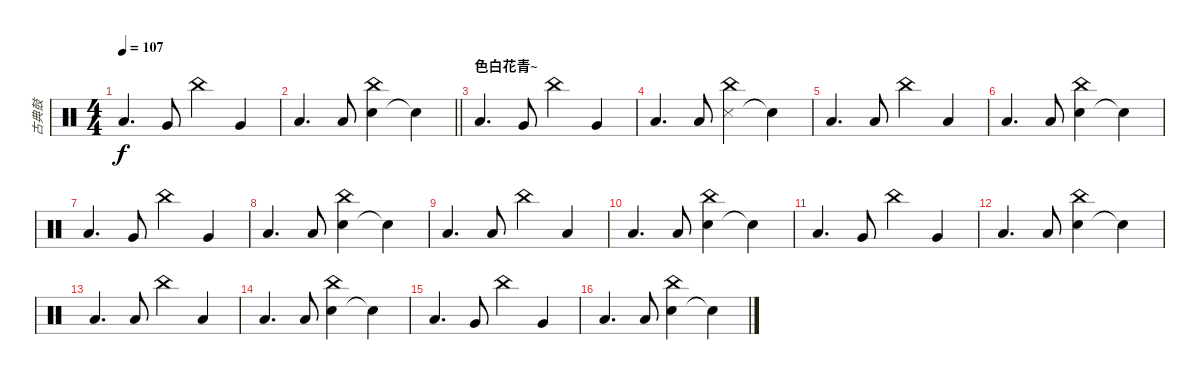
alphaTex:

\track ("古典鼓" "古典鼓") {instrument percussion}
\staff {score}
\articulation defaults
\ts (4 4)
\tempo 107
\clef neutral
\ks c "Low Floor Tom (hit)".4{d dy f} "Very Low Tom (hit)".8 "China (hit)".4 "Very Low Tom (hit)".4
|
\barLineRight lightlight "Low Floor Tom (hit)".4{d} "Low Floor Tom (hit)".8
("Hand Clap (hit)" "China (hit)").4 "Snare (hit)"{t}.4 |
\section ("" "色白花青~")
"Low Floor Tom (hit)".4{d} "Very Low Tom (hit)".8 "China (hit)".4 "Very Low Tom (hit)".4 |
"Low Floor Tom (hit)".4{d} "Low Floor Tom (hit)".8 ("Snare (side stick) 3" "China (hit)").4 "Snare (hit)"{t}.4 |
"Low Floor Tom (hit)".4{d} "Low Floor Tom (hit)".8 "China (hit)".4 "Low Floor Tom (hit)".4 |
"Low Floor Tom (hit)".4{d} "Low Floor Tom (hit)".8 ("Hand Clap (hit)" "China (hit)").4 "Snare (hit)"{t}.4 |
"Low Floor Tom (hit)".4{d} "Very Low Tom (hit)".8 "China (hit)".4 "Very Low Tom (hit)".4 |
"Low Floor Tom (hit)".4{d} "Low Floor Tom (hit)".8 ("Hand Clap (hit)" "China (hit)").4 "Snare (hit)"{t}.4 |
"Low Floor Tom (hit)".4{d} "Low Floor Tom (hit)".8 "China (hit)".4 "Low Floor Tom (hit)".4 |
"Low Floor Tom (hit)".4{d} "Low Floor Tom (hit)".8 ("Hand Clap (hit)" "China (hit)").4 "Snare (hit)"{t}.4 |
"Low Floor Tom (hit)".4{d} "Very Low Tom (hit)".8 "China (hit)".4 "Very Low Tom (hit)".4 |
"Low Floor Tom (hit)".4{d} "Low Floor Tom (hit)".8 ("Hand Clap (hit)" "China (hit)").4 "Snare (hit)"{t}.4 |
"Low Floor Tom (hit)".4{d} "Low Floor Tom (hit)".8 "China (hit)".4 "Low Floor Tom (hit)".4 |
"Low Floor Tom (hit)".4{d} "Low Floor Tom (hit)".8 ("Hand Clap (hit)" "China (hit)").4 "Snare (hit)"{t}.4 |
"Low Floor Tom (hit)".4{d} "Very Low Tom (hit)".8 "China (hit)".4 "Very Low Tom (hit)".4 |
"Low Floor Tom (hit)".4{d} "Low Floor Tom (hit)".8 ("Hand Clap (hit)" "China (hit)").4 "Snare (hit)"{t}.4
